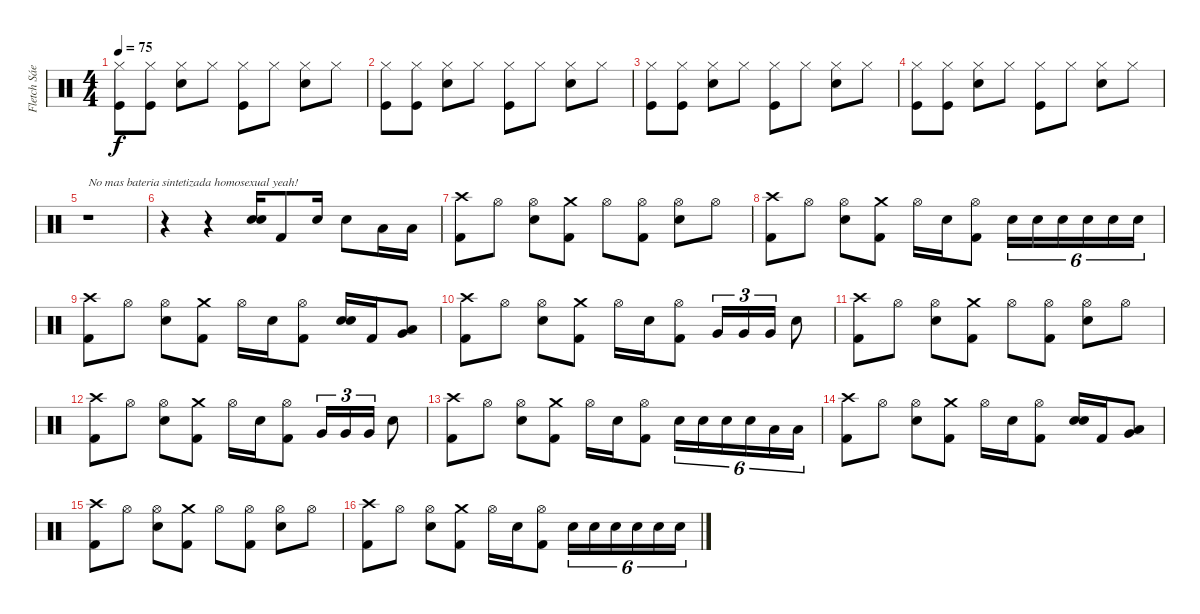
\track ("Fletch Sáenz" "Fletch Sáe") {instrument percussion}
\staff {score}
\articulation defaults
\ts (4 4)
\tempo 75
\clef neutral
\ks c
("Hi-Hat (closed)" "Kick (hit)").8{dy f} ("Hi-Hat (closed)" "Kick (hit)").8 ("Hi-Hat (closed)" "Snare (hit) 2").8 "Hi-Hat (closed)".8 ("Hi-Hat (closed)" "Kick (hit)").8 "Hi-Hat (closed)".8 ("Hi-Hat (closed)" "Snare (hit) 2").8 "Hi-Hat (closed)".8 |
("Hi-Hat (closed)" "Kick (hit)").8 ("Hi-Hat (closed)" "Kick (hit)").8 ("Hi-Hat (closed)" "Snare (hit) 2").8 "Hi-Hat (closed)".8 ("Hi-Hat (closed)" "Kick (hit)").8 "Hi-Hat (closed)".8 ("Hi-Hat (closed)" "Snare (hit) 2").8 "Hi-Hat (closed)".8 |
("Hi-Hat (closed)" "Kick (hit)").8 ("Hi-Hat (closed)" "Kick (hit)").8 ("Hi-Hat (closed)" "Snare (hit) 2").8 "Hi-Hat (closed)".8 ("Hi-Hat (closed)" "Kick (hit)").8 "Hi-Hat (closed)".8 ("Hi-Hat (closed)" "Snare (hit) 2").8 "Hi-Hat (closed)".8 |
("Hi-Hat (closed)" "Kick (hit)").8 ("Hi-Hat (closed)" "Kick (hit)").8 ("Hi-Hat (closed)" "Snare (hit) 2").8 "Hi-Hat (closed)".8 ("Hi-Hat (closed)" "Kick (hit)").8 "Hi-Hat (closed)".8 ("Hi-Hat (closed)" "Snare (hit) 2").8 "Hi-Hat (closed)".8 |
r.1{txt "No mas bateria sintetizada homosexual yeah!"} |
r.4 r.4 ("Electric Snare (hit)" "Electric Snare (hit)").16{bd 240} "Kick (hit) 2".8 "Electric Snare (hit)".16 "Electric Snare (hit)".8 "Low Tom (hit)".16 "Low Tom (hit)".16 |
("Crash high (hit)" "Kick (hit) 2").8 "Hi-Hat (open)".8 ("Hi-Hat (open)" "Electric Snare (hit)").8 ("Crash medium (hit)" "Kick (hit) 2").8 "Hi-Hat (open)".8 ("Hi-Hat (open)" "Kick (hit) 2").8 ("Hi-Hat (open)" "Electric Snare (hit)").8 "Hi-Hat (open)".8 |
("Crash high (hit)" "Kick (hit) 2").8 "Hi-Hat (open)".8 ("Hi-Hat (open)" "Electric Snare (hit)").8 ("Crash medium (hit)" "Kick (hit) 2").8 "Hi-Hat (open)".16 "Electric Snare (hit)".16 ("Hi-Hat (open)" "Kick (hit) 2").8 "Electric Snare (hit)".16{tu (6 4)} "Electric Snare (hit)".16{tu (6 4)} "Electric Snare (hit)".16{tu (6 4)} "Electric Snare (hit)".16{tu (6 4)} "Electric Snare (hit)".16{tu (6 4)} "Electric Snare (hit)".16{tu (6 4)} |
("Crash high (hit)" "Kick (hit) 2").8 "Hi-Hat (open)".8 ("Hi-Hat (open)" "Electric Snare (hit)").8 ("Crash medium (hit)" "Kick (hit) 2").8 "Hi-Hat (open)".16 "Electric Snare (hit)".16 ("Hi-Hat (open)" "Kick (hit) 2").8 ("Electric Snare (hit)" "Electric Snare (hit)").16 "Kick (hit) 2".16 ("Low Tom (hit)" "Very Low Tom (hit)").8 |
("Crash high (hit)" "Kick (hit) 2").8 "Hi-Hat (open)".8 ("Hi-Hat (open)" "Electric Snare (hit)").8 ("Crash medium (hit)" "Kick (hit) 2").8 "Hi-Hat (open)".16 "Electric Snare (hit)".16 ("Hi-Hat (open)" "Kick (hit) 2").8 "Very Low Tom (hit)".16{tu (3 2)} "Very Low Tom (hit)".16{tu (3 2)} "Very Low Tom (hit)".16{tu (3 2)} "Electric Snare (hit)".8 |
("Crash high (hit)" "Kick (hit) 2").8 "Hi-Hat (open)".8 ("Hi-Hat (open)" "Electric Snare (hit)").8 ("Crash medium (hit)" "Kick (hit) 2").8 "Hi-Hat (open)".8 ("Hi-Hat (open)" "Kick (hit) 2").8 ("Hi-Hat (open)" "Electric Snare (hit)").8 "Hi-Hat (open)".8 |
("Crash high (hit)" "Kick (hit) 2").8 "Hi-Hat (open)".8 ("Hi-Hat (open)" "Electric Snare (hit)").8 ("Crash medium (hit)" "Kick (hit) 2").8 "Hi-Hat (open)".16 "Electric Snare (hit)".16 ("Hi-Hat (open)" "Kick (hit) 2").8 "Very Low Tom (hit)".16{tu (3 2)} "Very Low Tom (hit)".16{tu (3 2)} "Very Low Tom (hit)".16{tu (3 2)} "Electric Snare (hit)".8 |
("Crash high (hit)" "Kick (hit) 2").8 "Hi-Hat (open)".8 ("Hi-Hat (open)" "Electric Snare (hit)").8 ("Crash medium (hit)" "Kick (hit) 2").8 "Hi-Hat (open)".16 "Electric Snare (hit)".16 ("Hi-Hat (open)" "Kick (hit) 2").8 "Electric Snare (hit)".16{tu (6 4)} "Electric Snare (hit)".16{tu (6 4)} "Electric Snare (hit)".16{tu (6 4)} "Electric Snare (hit)".16{tu (6 4)} "Low Tom (hit)".16{tu (6 4)} "Low Tom (hit)".16{tu (6 4)} |
("Crash high (hit)" "Kick (hit) 2").8 "Hi-Hat (open)".8 ("Hi-Hat (open)" "Electric Snare (hit)").8 ("Crash medium (hit)" "Kick (hit) 2").8 "Hi-Hat (open)".16 "Electric Snare (hit)".16 ("Hi-Hat (open)" "Kick (hit) 2").8 ("Electric Snare (hit)" "Electric Snare (hit)").16 "Kick (hit) 2".16 ("Low Tom (hit)" "Very Low Tom (hit)").8 |
("Crash high (hit)" "Kick (hit) 2").8 "Hi-Hat (open)".8 ("Hi-Hat (open)" "Electric Snare (hit)").8 ("Crash medium (hit)" "Kick (hit) 2").8 "Hi-Hat (open)".8 ("Hi-Hat (open)" "Kick (hit) 2").8 ("Hi-Hat (open)" "Electric Snare (hit)").8 "Hi-Hat (open)".8 |
("Crash high (hit)" "Kick (hit) 2").8 "Hi-Hat (open)".8 ("Hi-Hat (open)" "Electric Snare (hit)").8 ("Crash medium (hit)" "Kick (hit) 2").8 "Hi-Hat (open)".16 "Electric Snare (hit)".16 ("Hi-Hat (open)" "Kick (hit) 2").8 "Electric Snare (hit)".16{tu (6 4)} "Electric Snare (hit)".16{tu (6 4)} "Electric Snare (hit)".16{tu (6 4)} "Electric Snare (hit)".16{tu (6 4)} "Electric Snare (hit)".16{tu (6 4)} "Electric Snare (hit)".16{tu (6 4)}
